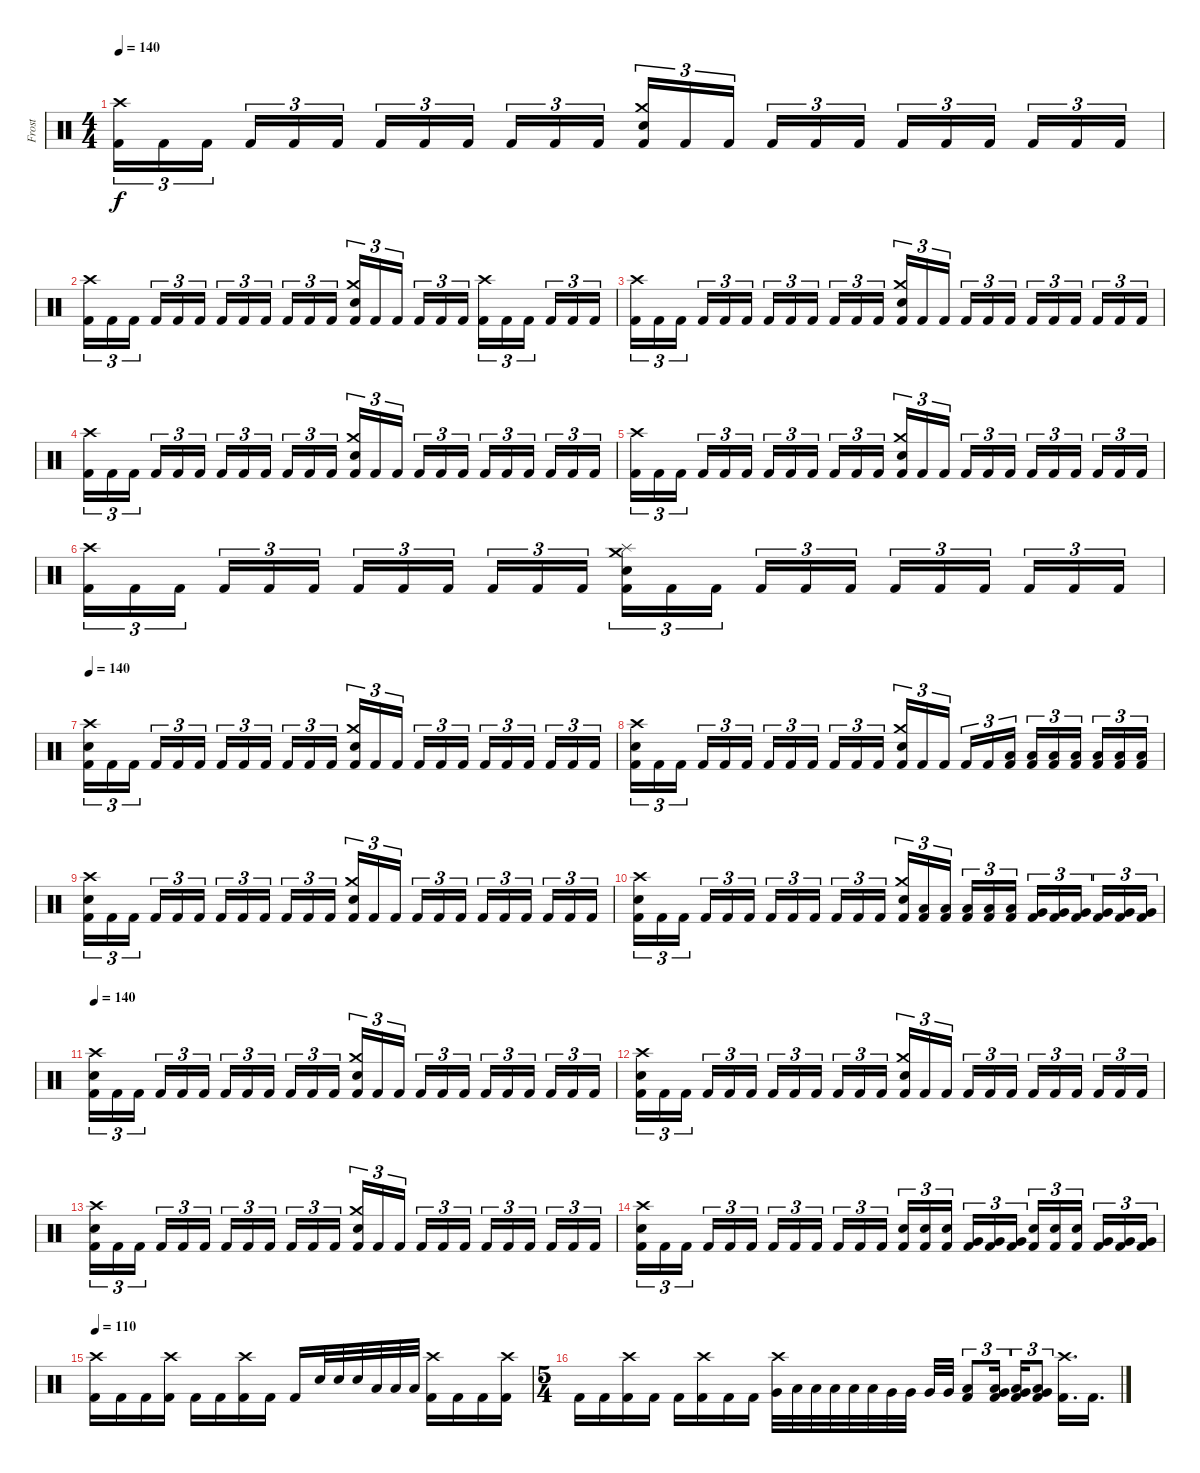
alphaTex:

\track ("Frost" "Frost") {instrument percussion}
\staff {score}
\articulation defaults
\ts (4 4)
\tempo 140
\clef neutral
\ks c
("Crash high (hit)" "Kick (hit) 2").16{tu (3 2) dy f} "Kick (hit) 2".16{tu (3 2)} "Kick (hit) 2".16{tu (3 2) beam splitsecondary} "Kick (hit) 2".16{tu (3 2)} "Kick (hit) 2".16{tu (3 2)} "Kick (hit) 2".16{tu (3 2)} "Kick (hit) 2".16{tu (3 2)} "Kick (hit) 2".16{tu (3 2)} "Kick (hit) 2".16{tu (3 2) beam splitsecondary} "Kick (hit) 2".16{tu (3 2)} "Kick (hit) 2".16{tu (3 2)} "Kick (hit) 2".16{tu (3 2)} ("Crash medium (hit)" "Snare (hit) 2" "Kick (hit) 2").16{tu (3 2)} "Kick (hit) 2".16{tu (3 2)} "Kick (hit) 2".16{tu (3 2) beam splitsecondary} "Kick (hit) 2".16{tu (3 2)} "Kick (hit) 2".16{tu (3 2)} "Kick (hit) 2".16{tu (3 2)} "Kick (hit) 2".16{tu (3 2)} "Kick (hit) 2".16{tu (3 2)} "Kick (hit) 2".16{tu (3 2) beam splitsecondary} "Kick (hit) 2".16{tu (3 2)} "Kick (hit) 2".16{tu (3 2)} "Kick (hit) 2".16{tu (3 2)} |
("Crash high (hit)" "Kick (hit) 2").16{tu (3 2)} "Kick (hit) 2".16{tu (3 2)} "Kick (hit) 2".16{tu (3 2) beam splitsecondary} "Kick (hit) 2".16{tu (3 2)} "Kick (hit) 2".16{tu (3 2)} "Kick (hit) 2".16{tu (3 2)} "Kick (hit) 2".16{tu (3 2)} "Kick (hit) 2".16{tu (3 2)} "Kick (hit) 2".16{tu (3 2) beam splitsecondary} "Kick (hit) 2".16{tu (3 2)} "Kick (hit) 2".16{tu (3 2)} "Kick (hit) 2".16{tu (3 2)} ("Crash medium (hit)" "Snare (hit) 2" "Kick (hit) 2").16{tu (3 2)} "Kick (hit) 2".16{tu (3 2)} "Kick (hit) 2".16{tu (3 2) beam splitsecondary} "Kick (hit) 2".16{tu (3 2)} "Kick (hit) 2".16{tu (3 2)} "Kick (hit) 2".16{tu (3 2)} ("Crash high (hit)" "Kick (hit) 2").16{tu (3 2)} "Kick (hit) 2".16{tu (3 2)} "Kick (hit) 2".16{tu (3 2) beam splitsecondary} "Kick (hit) 2".16{tu (3 2)} "Kick (hit) 2".16{tu (3 2)} "Kick (hit) 2".16{tu (3 2)} |
("Crash high (hit)" "Kick (hit) 2").16{tu (3 2)} "Kick (hit) 2".16{tu (3 2)} "Kick (hit) 2".16{tu (3 2) beam splitsecondary} "Kick (hit) 2".16{tu (3 2)} "Kick (hit) 2".16{tu (3 2)} "Kick (hit) 2".16{tu (3 2)} "Kick (hit) 2".16{tu (3 2)} "Kick (hit) 2".16{tu (3 2)} "Kick (hit) 2".16{tu (3 2) beam splitsecondary} "Kick (hit) 2".16{tu (3 2)} "Kick (hit) 2".16{tu (3 2)} "Kick (hit) 2".16{tu (3 2)} ("Crash medium (hit)" "Snare (hit) 2" "Kick (hit) 2").16{tu (3 2)} "Kick (hit) 2".16{tu (3 2)} "Kick (hit) 2".16{tu (3 2) beam splitsecondary} "Kick (hit) 2".16{tu (3 2)} "Kick (hit) 2".16{tu (3 2)} "Kick (hit) 2".16{tu (3 2)} "Kick (hit) 2".16{tu (3 2)} "Kick (hit) 2".16{tu (3 2)} "Kick (hit) 2".16{tu (3 2) beam splitsecondary} "Kick (hit) 2".16{tu (3 2)} "Kick (hit) 2".16{tu (3 2)} "Kick (hit) 2".16{tu (3 2)} |
("Crash high (hit)" "Kick (hit) 2").16{tu (3 2)} "Kick (hit) 2".16{tu (3 2)} "Kick (hit) 2".16{tu (3 2) beam splitsecondary} "Kick (hit) 2".16{tu (3 2)} "Kick (hit) 2".16{tu (3 2)} "Kick (hit) 2".16{tu (3 2)} "Kick (hit) 2".16{tu (3 2)} "Kick (hit) 2".16{tu (3 2)} "Kick (hit) 2".16{tu (3 2) beam splitsecondary} "Kick (hit) 2".16{tu (3 2)} "Kick (hit) 2".16{tu (3 2)} "Kick (hit) 2".16{tu (3 2)} ("Crash medium (hit)" "Snare (hit) 2" "Kick (hit) 2").16{tu (3 2)} "Kick (hit) 2".16{tu (3 2)} "Kick (hit) 2".16{tu (3 2) beam splitsecondary} "Kick (hit) 2".16{tu (3 2)} "Kick (hit) 2".16{tu (3 2)} "Kick (hit) 2".16{tu (3 2)} "Kick (hit) 2".16{tu (3 2)} "Kick (hit) 2".16{tu (3 2)} "Kick (hit) 2".16{tu (3 2) beam splitsecondary} "Kick (hit) 2".16{tu (3 2)} "Kick (hit) 2".16{tu (3 2)} "Kick (hit) 2".16{tu (3 2)} |
("Crash high (hit)" "Kick (hit) 2").16{tu (3 2)} "Kick (hit) 2".16{tu (3 2)} "Kick (hit) 2".16{tu (3 2) beam splitsecondary} "Kick (hit) 2".16{tu (3 2)} "Kick (hit) 2".16{tu (3 2)} "Kick (hit) 2".16{tu (3 2)} "Kick (hit) 2".16{tu (3 2)} "Kick (hit) 2".16{tu (3 2)} "Kick (hit) 2".16{tu (3 2) beam splitsecondary} "Kick (hit) 2".16{tu (3 2)} "Kick (hit) 2".16{tu (3 2)} "Kick (hit) 2".16{tu (3 2)} ("Crash medium (hit)" "Snare (hit) 2" "Kick (hit) 2").16{tu (3 2)} "Kick (hit) 2".16{tu (3 2)} "Kick (hit) 2".16{tu (3 2) beam splitsecondary} "Kick (hit) 2".16{tu (3 2)} "Kick (hit) 2".16{tu (3 2)} "Kick (hit) 2".16{tu (3 2)} "Kick (hit) 2".16{tu (3 2)} "Kick (hit) 2".16{tu (3 2)} "Kick (hit) 2".16{tu (3 2) beam splitsecondary} "Kick (hit) 2".16{tu (3 2)} "Kick (hit) 2".16{tu (3 2)} "Kick (hit) 2".16{tu (3 2)} |
("Crash high (hit)" "Kick (hit) 2").16{tu (3 2)} "Kick (hit) 2".16{tu (3 2)} "Kick (hit) 2".16{tu (3 2) beam splitsecondary} "Kick (hit) 2".16{tu (3 2)} "Kick (hit) 2".16{tu (3 2)} "Kick (hit) 2".16{tu (3 2)} "Kick (hit) 2".16{tu (3 2)} "Kick (hit) 2".16{tu (3 2)} "Kick (hit) 2".16{tu (3 2) beam splitsecondary} "Kick (hit) 2".16{tu (3 2)} "Kick (hit) 2".16{tu (3 2)} "Kick (hit) 2".16{tu (3 2)} ("Splash (hit)" "Crash medium (hit)" "Snare (hit) 2" "Kick (hit) 2").16{tu (3 2)} "Kick (hit) 2".16{tu (3 2)} "Kick (hit) 2".16{tu (3 2) beam splitsecondary} "Kick (hit) 2".16{tu (3 2)} "Kick (hit) 2".16{tu (3 2)} "Kick (hit) 2".16{tu (3 2)} "Kick (hit) 2".16{tu (3 2)} "Kick (hit) 2".16{tu (3 2)} "Kick (hit) 2".16{tu (3 2) beam splitsecondary} "Kick (hit) 2".16{tu (3 2)} "Kick (hit) 2".16{tu (3 2)} "Kick (hit) 2".16{tu (3 2)} |
\tempo 140
("Crash high (hit)" "Snare (hit) 2" "Kick (hit) 2").16{tu (3 2)} "Kick (hit) 2".16{tu (3 2)} "Kick (hit) 2".16{tu (3 2) beam splitsecondary} "Kick (hit) 2".16{tu (3 2)} "Kick (hit) 2".16{tu (3 2)} "Kick (hit) 2".16{tu (3 2)} "Kick (hit) 2".16{tu (3 2)} "Kick (hit) 2".16{tu (3 2)} "Kick (hit) 2".16{tu (3 2) beam splitsecondary} "Kick (hit) 2".16{tu (3 2)} "Kick (hit) 2".16{tu (3 2)} "Kick (hit) 2".16{tu (3 2)} ("Crash medium (hit)" "Snare (hit) 2" "Kick (hit) 2").16{tu (3 2)} "Kick (hit) 2".16{tu (3 2)} "Kick (hit) 2".16{tu (3 2) beam splitsecondary} "Kick (hit) 2".16{tu (3 2)} "Kick (hit) 2".16{tu (3 2)} "Kick (hit) 2".16{tu (3 2)} "Kick (hit) 2".16{tu (3 2)} "Kick (hit) 2".16{tu (3 2)} "Kick (hit) 2".16{tu (3 2) beam splitsecondary} "Kick (hit) 2".16{tu (3 2)} "Kick (hit) 2".16{tu (3 2)} "Kick (hit) 2".16{tu (3 2)} |
("Crash high (hit)" "Snare (hit) 2" "Kick (hit) 2").16{tu (3 2)} "Kick (hit) 2".16{tu (3 2)} "Kick (hit) 2".16{tu (3 2) beam splitsecondary} "Kick (hit) 2".16{tu (3 2)} "Kick (hit) 2".16{tu (3 2)} "Kick (hit) 2".16{tu (3 2)} "Kick (hit) 2".16{tu (3 2)} "Kick (hit) 2".16{tu (3 2)} "Kick (hit) 2".16{tu (3 2) beam splitsecondary} "Kick (hit) 2".16{tu (3 2)} "Kick (hit) 2".16{tu (3 2)} "Kick (hit) 2".16{tu (3 2)} ("Crash medium (hit)" "Snare (hit) 2" "Kick (hit) 2").16{tu (3 2)} "Kick (hit) 2".16{tu (3 2)} "Kick (hit) 2".16{tu (3 2) beam splitsecondary} "Kick (hit) 2".16{tu (3 2)} "Kick (hit) 2".16{tu (3 2)} ("Low Tom (hit)" "Kick (hit) 2").16{tu (3 2)} ("Low Tom (hit)" "Kick (hit) 2").16{tu (3 2)} ("Low Tom (hit)" "Kick (hit) 2").16{tu (3 2)} ("Low Tom (hit)" "Kick (hit) 2").16{tu (3 2) beam splitsecondary} ("Low Tom (hit)" "Kick (hit) 2").16{tu (3 2)} ("Low Tom (hit)" "Kick (hit) 2").16{tu (3 2)} ("Low Tom (hit)" "Kick (hit) 2").16{tu (3 2)} |
("Crash high (hit)" "Snare (hit) 2" "Kick (hit) 2").16{tu (3 2)} "Kick (hit) 2".16{tu (3 2)} "Kick (hit) 2".16{tu (3 2) beam splitsecondary} "Kick (hit) 2".16{tu (3 2)} "Kick (hit) 2".16{tu (3 2)} "Kick (hit) 2".16{tu (3 2)} "Kick (hit) 2".16{tu (3 2)} "Kick (hit) 2".16{tu (3 2)} "Kick (hit) 2".16{tu (3 2) beam splitsecondary} "Kick (hit) 2".16{tu (3 2)} "Kick (hit) 2".16{tu (3 2)} "Kick (hit) 2".16{tu (3 2)} ("Crash medium (hit)" "Snare (hit) 2" "Kick (hit) 2").16{tu (3 2)} "Kick (hit) 2".16{tu (3 2)} "Kick (hit) 2".16{tu (3 2) beam splitsecondary} "Kick (hit) 2".16{tu (3 2)} "Kick (hit) 2".16{tu (3 2)} "Kick (hit) 2".16{tu (3 2)} "Kick (hit) 2".16{tu (3 2)} "Kick (hit) 2".16{tu (3 2)} "Kick (hit) 2".16{tu (3 2) beam splitsecondary} "Kick (hit) 2".16{tu (3 2)} "Kick (hit) 2".16{tu (3 2)} "Kick (hit) 2".16{tu (3 2)} |
("Crash high (hit)" "Snare (hit) 2" "Kick (hit) 2").16{tu (3 2)} "Kick (hit) 2".16{tu (3 2)} "Kick (hit) 2".16{tu (3 2) beam splitsecondary} "Kick (hit) 2".16{tu (3 2)} "Kick (hit) 2".16{tu (3 2)} "Kick (hit) 2".16{tu (3 2)} "Kick (hit) 2".16{tu (3 2)} "Kick (hit) 2".16{tu (3 2)} "Kick (hit) 2".16{tu (3 2) beam splitsecondary} "Kick (hit) 2".16{tu (3 2)} "Kick (hit) 2".16{tu (3 2)} "Kick (hit) 2".16{tu (3 2)} ("Crash medium (hit)" "Snare (hit) 2" "Kick (hit) 2").16{tu (3 2)} ("Low Tom (hit)" "Kick (hit) 2").16{tu (3 2)} ("Low Tom (hit)" "Kick (hit) 2").16{tu (3 2) beam splitsecondary} ("Low Tom (hit)" "Kick (hit) 2").16{tu (3 2)} ("Low Tom (hit)" "Kick (hit) 2").16{tu (3 2)} ("Low Tom (hit)" "Kick (hit) 2").16{tu (3 2)} ("Very Low Tom (hit)" "Kick (hit) 2").16{tu (3 2)} ("Very Low Tom (hit)" "Kick (hit) 2").16{tu (3 2)} ("Very Low Tom (hit)" "Kick (hit) 2").16{tu (3 2) beam splitsecondary} ("Very Low Tom (hit)" "Kick (hit) 2").16{tu (3 2)} ("Very Low Tom (hit)" "Kick (hit) 2").16{tu (3 2)} ("Very Low Tom (hit)" "Kick (hit) 2").16{tu (3 2)} |
\tempo 140
("Crash high (hit)" "Snare (hit) 2" "Kick (hit) 2").16{tu (3 2)} "Kick (hit) 2".16{tu (3 2)} "Kick (hit) 2".16{tu (3 2) beam splitsecondary} "Kick (hit) 2".16{tu (3 2)} "Kick (hit) 2".16{tu (3 2)} "Kick (hit) 2".16{tu (3 2)} "Kick (hit) 2".16{tu (3 2)} "Kick (hit) 2".16{tu (3 2)} "Kick (hit) 2".16{tu (3 2) beam splitsecondary} "Kick (hit) 2".16{tu (3 2)} "Kick (hit) 2".16{tu (3 2)} "Kick (hit) 2".16{tu (3 2)} ("Crash medium (hit)" "Snare (hit) 2" "Kick (hit) 2").16{tu (3 2)} "Kick (hit) 2".16{tu (3 2)} "Kick (hit) 2".16{tu (3 2) beam splitsecondary} "Kick (hit) 2".16{tu (3 2)} "Kick (hit) 2".16{tu (3 2)} "Kick (hit) 2".16{tu (3 2)} "Kick (hit) 2".16{tu (3 2)} "Kick (hit) 2".16{tu (3 2)} "Kick (hit) 2".16{tu (3 2) beam splitsecondary} "Kick (hit) 2".16{tu (3 2)} "Kick (hit) 2".16{tu (3 2)} "Kick (hit) 2".16{tu (3 2)} |
("Crash high (hit)" "Snare (hit) 2" "Kick (hit) 2").16{tu (3 2)} "Kick (hit) 2".16{tu (3 2)} "Kick (hit) 2".16{tu (3 2) beam splitsecondary} "Kick (hit) 2".16{tu (3 2)} "Kick (hit) 2".16{tu (3 2)} "Kick (hit) 2".16{tu (3 2)} "Kick (hit) 2".16{tu (3 2)} "Kick (hit) 2".16{tu (3 2)} "Kick (hit) 2".16{tu (3 2) beam splitsecondary} "Kick (hit) 2".16{tu (3 2)} "Kick (hit) 2".16{tu (3 2)} "Kick (hit) 2".16{tu (3 2)} ("Crash medium (hit)" "Snare (hit) 2" "Kick (hit) 2").16{tu (3 2)} "Kick (hit) 2".16{tu (3 2)} "Kick (hit) 2".16{tu (3 2) beam splitsecondary} "Kick (hit) 2".16{tu (3 2)} "Kick (hit) 2".16{tu (3 2)} "Kick (hit) 2".16{tu (3 2)} "Kick (hit) 2".16{tu (3 2)} "Kick (hit) 2".16{tu (3 2)} "Kick (hit) 2".16{tu (3 2) beam splitsecondary} "Kick (hit) 2".16{tu (3 2)} "Kick (hit) 2".16{tu (3 2)} "Kick (hit) 2".16{tu (3 2)} |
("Crash high (hit)" "Snare (hit) 2" "Kick (hit) 2").16{tu (3 2)} "Kick (hit) 2".16{tu (3 2)} "Kick (hit) 2".16{tu (3 2) beam splitsecondary} "Kick (hit) 2".16{tu (3 2)} "Kick (hit) 2".16{tu (3 2)} "Kick (hit) 2".16{tu (3 2)} "Kick (hit) 2".16{tu (3 2)} "Kick (hit) 2".16{tu (3 2)} "Kick (hit) 2".16{tu (3 2) beam splitsecondary} "Kick (hit) 2".16{tu (3 2)} "Kick (hit) 2".16{tu (3 2)} "Kick (hit) 2".16{tu (3 2)} ("Crash medium (hit)" "Snare (hit) 2" "Kick (hit) 2").16{tu (3 2)} "Kick (hit) 2".16{tu (3 2)} "Kick (hit) 2".16{tu (3 2) beam splitsecondary} "Kick (hit) 2".16{tu (3 2)} "Kick (hit) 2".16{tu (3 2)} "Kick (hit) 2".16{tu (3 2)} "Kick (hit) 2".16{tu (3 2)} "Kick (hit) 2".16{tu (3 2)} "Kick (hit) 2".16{tu (3 2) beam splitsecondary} "Kick (hit) 2".16{tu (3 2)} "Kick (hit) 2".16{tu (3 2)} "Kick (hit) 2".16{tu (3 2)} |
("Crash high (hit)" "Snare (hit) 2" "Kick (hit) 2").16{tu (3 2)} "Kick (hit) 2".16{tu (3 2)} "Kick (hit) 2".16{tu (3 2) beam splitsecondary} "Kick (hit) 2".16{tu (3 2)} "Kick (hit) 2".16{tu (3 2)} "Kick (hit) 2".16{tu (3 2)} "Kick (hit) 2".16{tu (3 2)} "Kick (hit) 2".16{tu (3 2)} "Kick (hit) 2".16{tu (3 2) beam splitsecondary} "Kick (hit) 2".16{tu (3 2)} "Kick (hit) 2".16{tu (3 2)} "Kick (hit) 2".16{tu (3 2)} ("Snare (hit) 2" "Kick (hit) 2").16{tu (3 2)} ("Snare (hit) 2" "Kick (hit) 2").16{tu (3 2)} ("Snare (hit) 2" "Kick (hit) 2").16{tu (3 2) beam splitsecondary} ("Very Low Tom (hit)" "Kick (hit) 2").16{tu (3 2)} ("Very Low Tom (hit)" "Kick (hit) 2").16{tu (3 2)} ("Very Low Tom (hit)" "Kick (hit) 2").16{tu (3 2)} ("Snare (hit) 2" "Kick (hit) 2").16{tu (3 2)} ("Snare (hit) 2" "Kick (hit) 2").16{tu (3 2)} ("Snare (hit) 2" "Kick (hit) 2").16{tu (3 2) beam splitsecondary} ("Very Low Tom (hit)" "Kick (hit) 2").16{tu (3 2)} ("Very Low Tom (hit)" "Kick (hit) 2").16{tu (3 2)} ("Very Low Tom (hit)" "Kick (hit) 2").16{tu (3 2)} |
\tempo 110
("Crash high (hit)" "Kick (hit) 2").16 "Kick (hit) 2".16 "Kick (hit) 2".16 ("Crash high (hit)" "Kick (hit) 2").16 "Kick (hit) 2".16 "Kick (hit) 2".16 ("Crash high (hit)" "Kick (hit) 2").16 "Kick (hit) 2".16 "Kick (hit) 2".16 "Snare (hit) 2".32 "Snare (hit) 2".32 "Snare (hit) 2".32 "Low Tom (hit)".32 "Low Tom (hit)".32 "Low Tom (hit)".32 ("Crash high (hit)" "Kick (hit) 2").16 "Kick (hit) 2".16 "Kick (hit) 2".16 ("Crash high (hit)" "Kick (hit) 2").16 |
\ts (5 4)
"Kick (hit) 2".16 "Kick (hit) 2".16 ("Crash high (hit)" "Kick (hit) 2").16 "Kick (hit) 2".16 "Kick (hit) 2".16 ("Crash high (hit)" "Kick (hit) 2").16 "Kick (hit) 2".16 "Kick (hit) 2".16 ("Crash high (hit)" "Very Low Tom (hit)").32 "Low Tom (hit)".32 "Low Tom (hit)".32 "Low Tom (hit)".32 "Low Tom (hit)".32 "Low Tom (hit)".32 "Very Low Tom (hit)".32 "Very Low Tom (hit)".32 "Very Low Tom (hit)".32 "Very Low Tom (hit)".32 ("Low Tom (hit)" "Kick (hit) 2").8{tu (3 2)} ("Very Low Tom (hit)" "Low Floor Tom (hit)" "Kick (hit) 2").16{tu (3 2) beam splitsecondary} ("Very Low Tom (hit)" "Low Floor Tom (hit)" "Kick (hit) 2").16{tu (3 2)} ("Very Low Tom (hit)" "Low Floor Tom (hit)" "Kick (hit) 2").8{tu (3 2)} ("Crash high (hit)" "Kick (hit) 2").16{d} "Kick (hit) 2".16{d}
